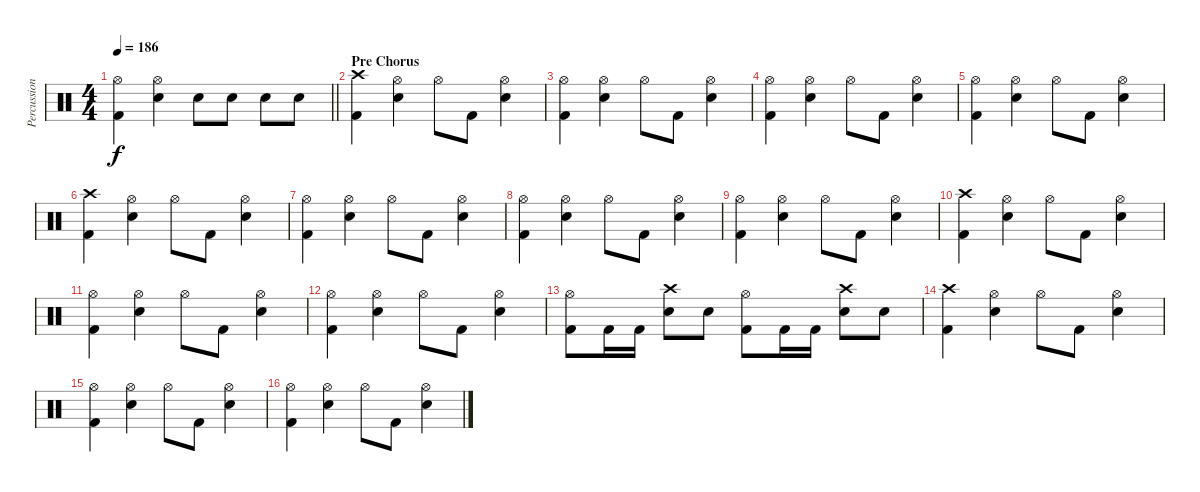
\track ("Percussion" "Percussion") {instrument percussion}
\staff {score}
\articulation defaults
\ts (4 4)
\tempo 186
\clef neutral
\barLineRight lightlight
\ks c
("Hi-Hat (open)" "Kick (hit) 2").4{dy f} ("Hi-Hat (open)" "Snare (hit) 2").4 "Snare (hit) 2".8 "Snare (hit) 2".8 "Snare (hit) 2".8 "Snare (hit) 2".8 |
\section ("" "Pre Chorus")
("Crash high (hit)" "Kick (hit) 2").4 ("Hi-Hat (open)" "Snare (hit) 2").4 "Hi-Hat (open)".8 "Kick (hit) 2".8 ("Hi-Hat (open)" "Snare (hit) 2").4 |
("Hi-Hat (open)" "Kick (hit) 2").4 ("Hi-Hat (open)" "Snare (hit) 2").4 "Hi-Hat (open)".8 "Kick (hit) 2".8 ("Hi-Hat (open)" "Snare (hit) 2").4 |
("Hi-Hat (open)" "Kick (hit) 2").4 ("Hi-Hat (open)" "Snare (hit) 2").4 "Hi-Hat (open)".8 "Kick (hit) 2".8 ("Hi-Hat (open)" "Snare (hit) 2").4 |
("Hi-Hat (open)" "Kick (hit) 2").4 ("Hi-Hat (open)" "Snare (hit) 2").4 "Hi-Hat (open)".8 "Kick (hit) 2".8 ("Hi-Hat (open)" "Snare (hit) 2").4 |
("Crash high (hit)" "Kick (hit) 2").4 ("Hi-Hat (open)" "Snare (hit) 2").4 "Hi-Hat (open)".8 "Kick (hit) 2".8 ("Hi-Hat (open)" "Snare (hit) 2").4 |
("Hi-Hat (open)" "Kick (hit) 2").4 ("Hi-Hat (open)" "Snare (hit) 2").4 "Hi-Hat (open)".8 "Kick (hit) 2".8 ("Hi-Hat (open)" "Snare (hit) 2").4 |
("Hi-Hat (open)" "Kick (hit) 2").4 ("Hi-Hat (open)" "Snare (hit) 2").4 "Hi-Hat (open)".8 "Kick (hit) 2".8 ("Hi-Hat (open)" "Snare (hit) 2").4 |
("Hi-Hat (open)" "Kick (hit) 2").4 ("Hi-Hat (open)" "Snare (hit) 2").4 "Hi-Hat (open)".8 "Kick (hit) 2".8 ("Hi-Hat (open)" "Snare (hit) 2").4 |
("Crash high (hit)" "Kick (hit) 2").4 ("Hi-Hat (open)" "Snare (hit) 2").4 "Hi-Hat (open)".8 "Kick (hit) 2".8 ("Hi-Hat (open)" "Snare (hit) 2").4 |
("Hi-Hat (open)" "Kick (hit) 2").4 ("Hi-Hat (open)" "Snare (hit) 2").4 "Hi-Hat (open)".8 "Kick (hit) 2".8 ("Hi-Hat (open)" "Snare (hit) 2").4 |
("Hi-Hat (open)" "Kick (hit) 2").4 ("Hi-Hat (open)" "Snare (hit) 2").4 "Hi-Hat (open)".8 "Kick (hit) 2".8 ("Hi-Hat (open)" "Snare (hit) 2").4 |
("Hi-Hat (open)" "Kick (hit) 2").8 "Kick (hit) 2".16 "Kick (hit) 2".16 ("Crash high (hit)" "Snare (hit) 2").8 "Snare (hit) 2".8 ("Hi-Hat (open)" "Kick (hit) 2").8 "Kick (hit) 2".16 "Kick (hit) 2".16 ("Crash high (hit)" "Snare (hit) 2").8 "Snare (hit) 2".8 |
("Crash high (hit)" "Kick (hit) 2").4 ("Hi-Hat (open)" "Snare (hit) 2").4 "Hi-Hat (open)".8 "Kick (hit) 2".8 ("Hi-Hat (open)" "Snare (hit) 2").4 |
("Hi-Hat (open)" "Kick (hit) 2").4 ("Hi-Hat (open)" "Snare (hit) 2").4 "Hi-Hat (open)".8 "Kick (hit) 2".8 ("Hi-Hat (open)" "Snare (hit) 2").4 |
("Hi-Hat (open)" "Kick (hit) 2").4 ("Hi-Hat (open)" "Snare (hit) 2").4 "Hi-Hat (open)".8 "Kick (hit) 2".8 ("Hi-Hat (open)" "Snare (hit) 2").4
